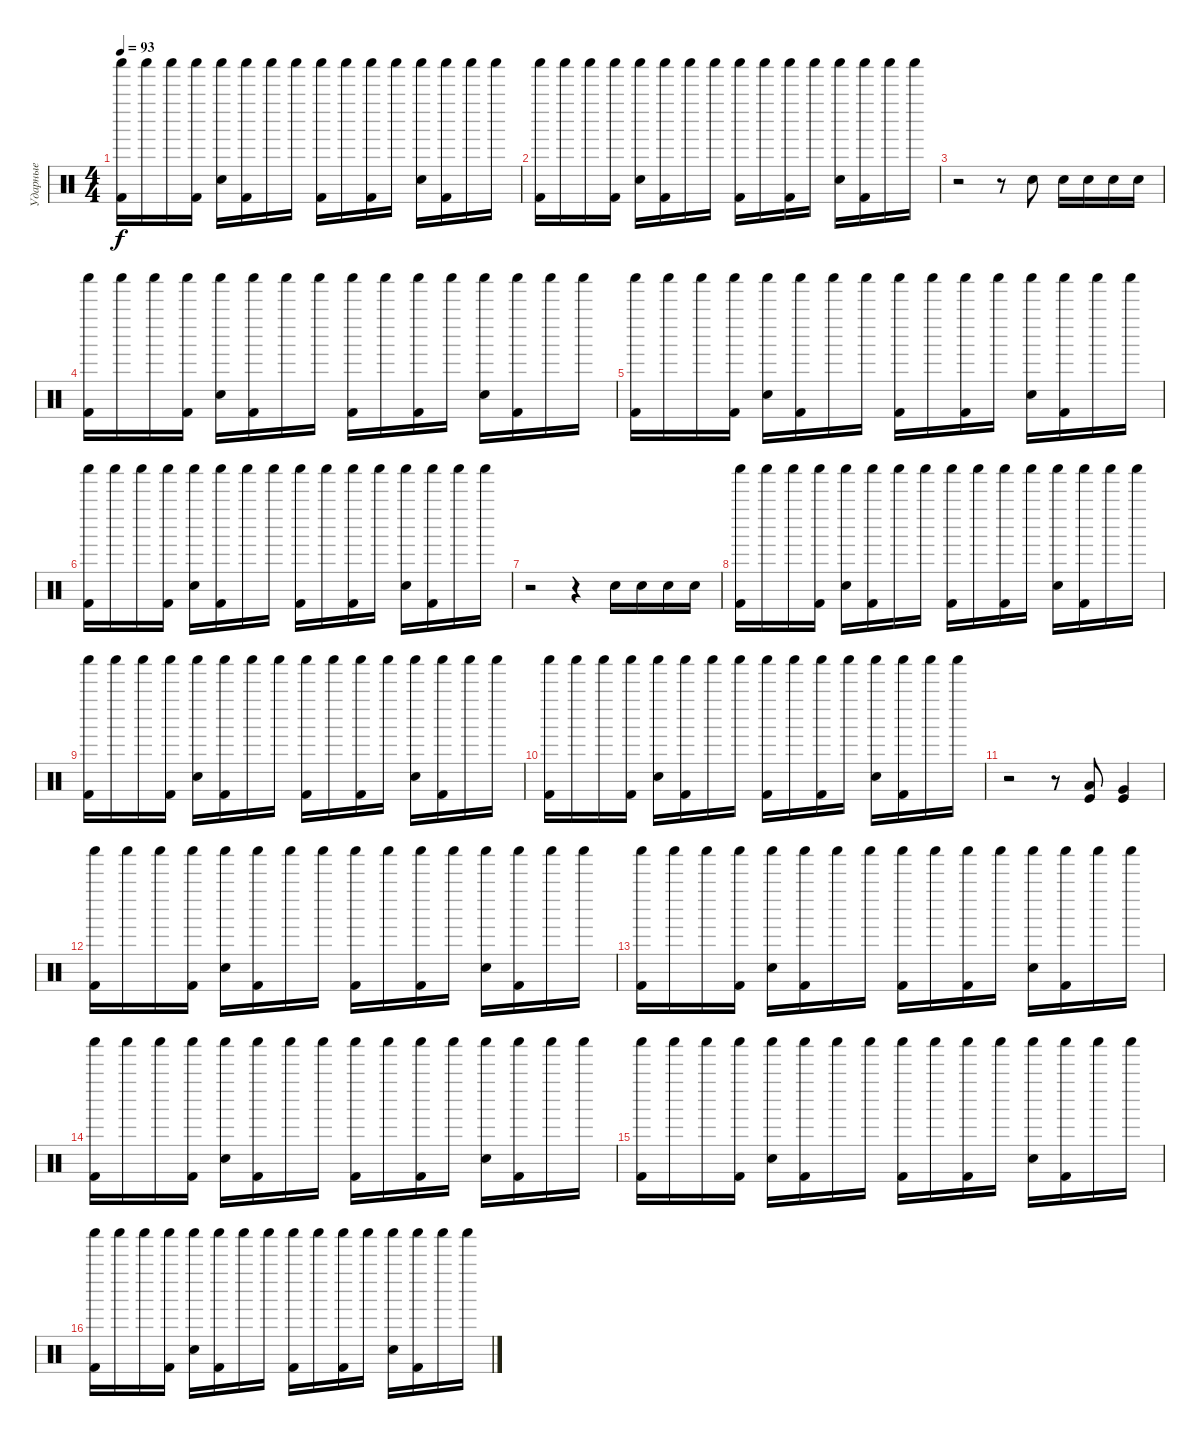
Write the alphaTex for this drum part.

\track ("Ударные" "Ударные") {instrument percussion}
\staff {score}
\articulation defaults
\ts (4 4)
\tempo 93
\clef neutral
\ks c
("Kick (hit) 2" "Shaker (hit)").16{dy f} "Shaker (hit)".16 "Shaker (hit)".16 ("Kick (hit) 2" "Shaker (hit)").16 ("Snare (hit) 2" "Shaker (hit)").16 ("Kick (hit) 2" "Shaker (hit)").16 "Shaker (hit)".16 "Shaker (hit)".16 ("Kick (hit) 2" "Shaker (hit)").16 "Shaker (hit)".16 ("Kick (hit) 2" "Shaker (hit)").16 "Shaker (hit)".16 ("Snare (hit) 2" "Shaker (hit)").16 ("Kick (hit) 2" "Shaker (hit)").16 "Shaker (hit)".16 "Shaker (hit)".16 |
("Kick (hit) 2" "Shaker (hit)").16 "Shaker (hit)".16 "Shaker (hit)".16 ("Kick (hit) 2" "Shaker (hit)").16 ("Snare (hit) 2" "Shaker (hit)").16 ("Kick (hit) 2" "Shaker (hit)").16 "Shaker (hit)".16 "Shaker (hit)".16 ("Kick (hit) 2" "Shaker (hit)").16 "Shaker (hit)".16 ("Kick (hit) 2" "Shaker (hit)").16 "Shaker (hit)".16 ("Snare (hit) 2" "Shaker (hit)").16 ("Kick (hit) 2" "Shaker (hit)").16 "Shaker (hit)".16 "Shaker (hit)".16 |
r.2 r.8 "Snare (hit) 2".8 "Snare (hit) 2".16 "Snare (hit) 2".16 "Snare (hit) 2".16 "Snare (hit) 2".16 |
("Kick (hit) 2" "Shaker (hit)").16 "Shaker (hit)".16 "Shaker (hit)".16 ("Kick (hit) 2" "Shaker (hit)").16 ("Snare (hit) 2" "Shaker (hit)").16 ("Kick (hit) 2" "Shaker (hit)").16 "Shaker (hit)".16 "Shaker (hit)".16 ("Kick (hit) 2" "Shaker (hit)").16 "Shaker (hit)".16 ("Kick (hit) 2" "Shaker (hit)").16 "Shaker (hit)".16 ("Snare (hit) 2" "Shaker (hit)").16 ("Kick (hit) 2" "Shaker (hit)").16 "Shaker (hit)".16 "Shaker (hit)".16 |
("Kick (hit) 2" "Shaker (hit)").16 "Shaker (hit)".16 "Shaker (hit)".16 ("Kick (hit) 2" "Shaker (hit)").16 ("Snare (hit) 2" "Shaker (hit)").16 ("Kick (hit) 2" "Shaker (hit)").16 "Shaker (hit)".16 "Shaker (hit)".16 ("Kick (hit) 2" "Shaker (hit)").16 "Shaker (hit)".16 ("Kick (hit) 2" "Shaker (hit)").16 "Shaker (hit)".16 ("Snare (hit) 2" "Shaker (hit)").16 ("Kick (hit) 2" "Shaker (hit)").16 "Shaker (hit)".16 "Shaker (hit)".16 |
("Kick (hit) 2" "Shaker (hit)").16 "Shaker (hit)".16 "Shaker (hit)".16 ("Kick (hit) 2" "Shaker (hit)").16 ("Snare (hit) 2" "Shaker (hit)").16 ("Kick (hit) 2" "Shaker (hit)").16 "Shaker (hit)".16 "Shaker (hit)".16 ("Kick (hit) 2" "Shaker (hit)").16 "Shaker (hit)".16 ("Kick (hit) 2" "Shaker (hit)").16 "Shaker (hit)".16 ("Snare (hit) 2" "Shaker (hit)").16 ("Kick (hit) 2" "Shaker (hit)").16 "Shaker (hit)".16 "Shaker (hit)".16 |
r.2 r.4 "Snare (hit) 2".16 "Snare (hit) 2".16 "Snare (hit) 2".16 "Snare (hit) 2".16 |
("Kick (hit) 2" "Shaker (hit)").16 "Shaker (hit)".16 "Shaker (hit)".16 ("Kick (hit) 2" "Shaker (hit)").16 ("Snare (hit) 2" "Shaker (hit)").16 ("Kick (hit) 2" "Shaker (hit)").16 "Shaker (hit)".16 "Shaker (hit)".16 ("Kick (hit) 2" "Shaker (hit)").16 "Shaker (hit)".16 ("Kick (hit) 2" "Shaker (hit)").16 "Shaker (hit)".16 ("Snare (hit) 2" "Shaker (hit)").16 ("Kick (hit) 2" "Shaker (hit)").16 "Shaker (hit)".16 "Shaker (hit)".16 |
("Kick (hit) 2" "Shaker (hit)").16 "Shaker (hit)".16 "Shaker (hit)".16 ("Kick (hit) 2" "Shaker (hit)").16 ("Snare (hit) 2" "Shaker (hit)").16 ("Kick (hit) 2" "Shaker (hit)").16 "Shaker (hit)".16 "Shaker (hit)".16 ("Kick (hit) 2" "Shaker (hit)").16 "Shaker (hit)".16 ("Kick (hit) 2" "Shaker (hit)").16 "Shaker (hit)".16 ("Snare (hit) 2" "Shaker (hit)").16 ("Kick (hit) 2" "Shaker (hit)").16 "Shaker (hit)".16 "Shaker (hit)".16 |
("Kick (hit) 2" "Shaker (hit)").16 "Shaker (hit)".16 "Shaker (hit)".16 ("Kick (hit) 2" "Shaker (hit)").16 ("Snare (hit) 2" "Shaker (hit)").16 ("Kick (hit) 2" "Shaker (hit)").16 "Shaker (hit)".16 "Shaker (hit)".16 ("Kick (hit) 2" "Shaker (hit)").16 "Shaker (hit)".16 ("Kick (hit) 2" "Shaker (hit)").16 "Shaker (hit)".16 ("Snare (hit) 2" "Shaker (hit)").16 ("Kick (hit) 2" "Shaker (hit)").16 "Shaker (hit)".16 "Shaker (hit)".16 |
r.2{volume 16} r.8 ("Kick (hit)" "Low Floor Tom (hit)").8 ("Kick (hit)" "Very Low Tom (hit)").4 |
("Kick (hit) 2" "Shaker (hit)").16 "Shaker (hit)".16 "Shaker (hit)".16 ("Kick (hit) 2" "Shaker (hit)").16 ("Snare (hit) 2" "Shaker (hit)").16 ("Kick (hit) 2" "Shaker (hit)").16 "Shaker (hit)".16 "Shaker (hit)".16 ("Kick (hit) 2" "Shaker (hit)").16 "Shaker (hit)".16 ("Kick (hit) 2" "Shaker (hit)").16 "Shaker (hit)".16 ("Snare (hit) 2" "Shaker (hit)").16 ("Kick (hit) 2" "Shaker (hit)").16 "Shaker (hit)".16 "Shaker (hit)".16 |
("Kick (hit) 2" "Shaker (hit)").16 "Shaker (hit)".16 "Shaker (hit)".16 ("Kick (hit) 2" "Shaker (hit)").16 ("Snare (hit) 2" "Shaker (hit)").16 ("Kick (hit) 2" "Shaker (hit)").16 "Shaker (hit)".16 "Shaker (hit)".16 ("Kick (hit) 2" "Shaker (hit)").16 "Shaker (hit)".16 ("Kick (hit) 2" "Shaker (hit)").16 "Shaker (hit)".16 ("Snare (hit) 2" "Shaker (hit)").16 ("Kick (hit) 2" "Shaker (hit)").16 "Shaker (hit)".16 "Shaker (hit)".16 |
("Kick (hit) 2" "Shaker (hit)").16 "Shaker (hit)".16 "Shaker (hit)".16 ("Kick (hit) 2" "Shaker (hit)").16 ("Snare (hit) 2" "Shaker (hit)").16 ("Kick (hit) 2" "Shaker (hit)").16 "Shaker (hit)".16 "Shaker (hit)".16 ("Kick (hit) 2" "Shaker (hit)").16 "Shaker (hit)".16 ("Kick (hit) 2" "Shaker (hit)").16 "Shaker (hit)".16 ("Snare (hit) 2" "Shaker (hit)").16 ("Kick (hit) 2" "Shaker (hit)").16 "Shaker (hit)".16 "Shaker (hit)".16 |
("Kick (hit) 2" "Shaker (hit)").16 "Shaker (hit)".16 "Shaker (hit)".16 ("Kick (hit) 2" "Shaker (hit)").16 ("Snare (hit) 2" "Shaker (hit)").16 ("Kick (hit) 2" "Shaker (hit)").16 "Shaker (hit)".16 "Shaker (hit)".16 ("Kick (hit) 2" "Shaker (hit)").16 "Shaker (hit)".16 ("Kick (hit) 2" "Shaker (hit)").16 "Shaker (hit)".16 ("Snare (hit) 2" "Shaker (hit)").16 ("Kick (hit) 2" "Shaker (hit)").16 "Shaker (hit)".16 "Shaker (hit)".16 |
("Kick (hit) 2" "Shaker (hit)").16 "Shaker (hit)".16 "Shaker (hit)".16 ("Kick (hit) 2" "Shaker (hit)").16 ("Snare (hit) 2" "Shaker (hit)").16 ("Kick (hit) 2" "Shaker (hit)").16 "Shaker (hit)".16 "Shaker (hit)".16 ("Kick (hit) 2" "Shaker (hit)").16 "Shaker (hit)".16 ("Kick (hit) 2" "Shaker (hit)").16 "Shaker (hit)".16 ("Snare (hit) 2" "Shaker (hit)").16 ("Kick (hit) 2" "Shaker (hit)").16 "Shaker (hit)".16 "Shaker (hit)".16
